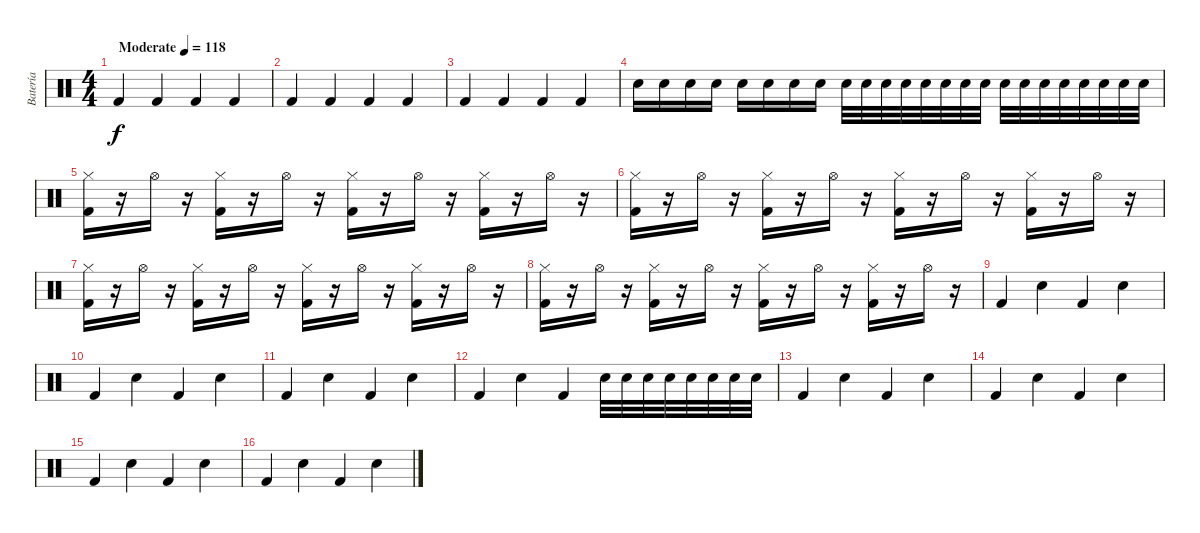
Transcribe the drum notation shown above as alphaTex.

\track ("Batería" "Batería") {instrument percussion}
\staff {score}
\articulation defaults
\ts (4 4)
\tempo (118 "Moderate")
\clef neutral
\ks c "Kick (hit) 2".4{dy f} "Kick (hit) 2".4 "Kick (hit) 2".4 "Kick (hit) 2".4
|
"Kick (hit) 2".4 "Kick (hit) 2".4 "Kick (hit) 2".4 "Kick (hit) 2".4 |
"Kick (hit) 2".4 "Kick (hit) 2".4 "Kick (hit) 2".4 "Kick (hit) 2".4 |
"Electric Snare (hit)".16 "Electric Snare (hit)".16 "Electric Snare (hit)".16 "Electric Snare (hit)".16 "Electric Snare (hit)".16 "Electric Snare (hit)".16 "Electric Snare (hit)".16 "Electric Snare (hit)".16 "Snare (hit) 2".32 "Snare (hit) 2".32 "Snare (hit) 2".32 "Snare (hit) 2".32 "Snare (hit) 2".32 "Snare (hit) 2".32 "Snare (hit) 2".32 "Snare (hit) 2".32 "Snare (hit) 2".32 "Snare (hit) 2".32 "Snare (hit) 2".32 "Snare (hit) 2".32 "Snare (hit) 2".32 "Snare (hit) 2".32 "Snare (hit) 2".32 "Snare (hit) 2".32 |
("Hi-Hat (closed)" "Kick (hit) 2").16 r.16 "Hi-Hat (open)".16 r.16 ("Hi-Hat (closed)" "Kick (hit) 2").16 r.16 "Hi-Hat (open)".16 r.16 ("Hi-Hat (closed)" "Kick (hit) 2").16 r.16 "Hi-Hat (open)".16 r.16 ("Hi-Hat (closed)" "Kick (hit) 2").16 r.16 "Hi-Hat (open)".16 r.16 |
("Hi-Hat (closed)" "Kick (hit) 2").16 r.16 "Hi-Hat (open)".16 r.16 ("Hi-Hat (closed)" "Kick (hit) 2").16 r.16 "Hi-Hat (open)".16 r.16 ("Hi-Hat (closed)" "Kick (hit) 2").16 r.16 "Hi-Hat (open)".16 r.16 ("Hi-Hat (closed)" "Kick (hit) 2").16 r.16 "Hi-Hat (open)".16 r.16 |
("Hi-Hat (closed)" "Kick (hit) 2").16 r.16 "Hi-Hat (open)".16 r.16 ("Hi-Hat (closed)" "Kick (hit) 2").16 r.16 "Hi-Hat (open)".16 r.16 ("Hi-Hat (closed)" "Kick (hit) 2").16 r.16 "Hi-Hat (open)".16 r.16 ("Hi-Hat (closed)" "Kick (hit) 2").16 r.16 "Hi-Hat (open)".16 r.16 |
("Hi-Hat (closed)" "Kick (hit) 2").16 r.16 "Hi-Hat (open)".16 r.16 ("Hi-Hat (closed)" "Kick (hit) 2").16 r.16 "Hi-Hat (open)".16 r.16 ("Hi-Hat (closed)" "Kick (hit) 2").16 r.16 "Hi-Hat (open)".16 r.16 ("Hi-Hat (closed)" "Kick (hit) 2").16 r.16 "Hi-Hat (open)".16 r.16 |
"Kick (hit) 2".4 "Hand Clap (hit)".4 "Kick (hit) 2".4 "Hand Clap (hit)".4 |
"Kick (hit) 2".4 "Hand Clap (hit)".4 "Kick (hit) 2".4 "Hand Clap (hit)".4 |
"Kick (hit) 2".4 "Hand Clap (hit)".4 "Kick (hit) 2".4 "Hand Clap (hit)".4 |
"Kick (hit) 2".4 "Hand Clap (hit)".4 "Kick (hit) 2".4 "Snare (hit) 2".32 "Snare (hit) 2".32 "Snare (hit) 2".32 "Snare (hit) 2".32 "Snare (hit) 2".32 "Snare (hit) 2".32 "Snare (hit) 2".32 "Snare (hit) 2".32 |
"Kick (hit) 2".4 "Hand Clap (hit)".4 "Kick (hit) 2".4 "Hand Clap (hit)".4 |
"Kick (hit) 2".4 "Hand Clap (hit)".4 "Kick (hit) 2".4 "Hand Clap (hit)".4 |
"Kick (hit) 2".4 "Hand Clap (hit)".4 "Kick (hit) 2".4 "Hand Clap (hit)".4 |
"Kick (hit) 2".4 "Hand Clap (hit)".4 "Kick (hit) 2".4 "Hand Clap (hit)".4
